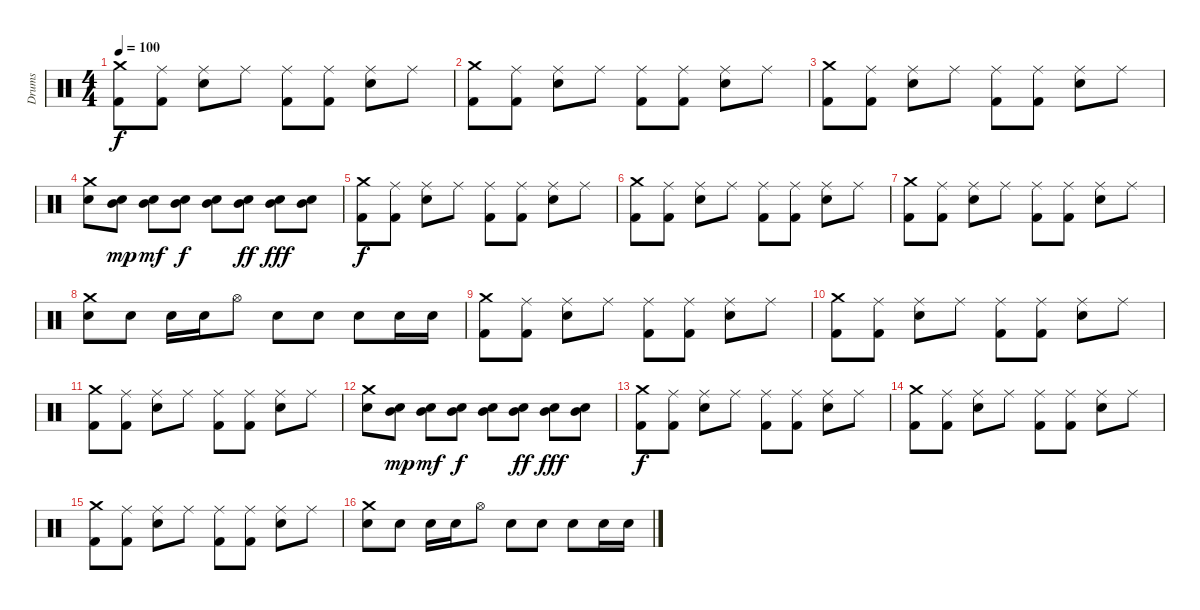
\track ("Drums" "Drums") {instrument percussion}
\staff {score}
\articulation defaults
\ts (4 4)
\tempo 100
\clef neutral
\ks c
("Crash medium (hit)" "Kick (hit) 2").8{dy f} ("Ride (middle)" "Kick (hit) 2").8 ("Ride (middle)" "Electric Snare (hit)").8 "Ride (middle)".8 ("Ride (middle)" "Kick (hit) 2").8 ("Ride (middle)" "Kick (hit) 2").8 ("Ride (middle)" "Electric Snare (hit)").8 "Ride (middle)".8 |
("Crash medium (hit)" "Kick (hit) 2").8 ("Ride (middle)" "Kick (hit) 2").8 ("Ride (middle)" "Electric Snare (hit)").8 "Ride (middle)".8 ("Ride (middle)" "Kick (hit) 2").8 ("Ride (middle)" "Kick (hit) 2").8 ("Ride (middle)" "Electric Snare (hit)").8 "Ride (middle)".8 |
("Crash medium (hit)" "Kick (hit) 2").8 ("Ride (middle)" "Kick (hit) 2").8 ("Ride (middle)" "Electric Snare (hit)").8 "Ride (middle)".8 ("Ride (middle)" "Kick (hit) 2").8 ("Ride (middle)" "Kick (hit) 2").8 ("Ride (middle)" "Electric Snare (hit)").8 "Ride (middle)".8 |
("Crash medium (hit)" "Electric Snare (hit)").8 ("Electric Snare (hit)" "Mid Tom (hit)").8{dy mp} ("Electric Snare (hit)" "Mid Tom (hit)").8{dy mf} ("Electric Snare (hit)" "Mid Tom (hit)").8{dy f} ("Electric Snare (hit)" "Mid Tom (hit)").8 ("Electric Snare (hit)" "Mid Tom (hit)").8{dy ff} ("Electric Snare (hit)" "Mid Tom (hit)").8{dy fff} ("Electric Snare (hit)" "Mid Tom (hit)").8 |
("Crash medium (hit)" "Kick (hit) 2").8{dy f} ("Ride (middle)" "Kick (hit) 2").8 ("Ride (middle)" "Electric Snare (hit)").8 "Ride (middle)".8 ("Ride (middle)" "Kick (hit) 2").8 ("Ride (middle)" "Kick (hit) 2").8 ("Ride (middle)" "Electric Snare (hit)").8 "Ride (middle)".8 |
("Crash medium (hit)" "Kick (hit) 2").8 ("Ride (middle)" "Kick (hit) 2").8 ("Ride (middle)" "Electric Snare (hit)").8 "Ride (middle)".8 ("Ride (middle)" "Kick (hit) 2").8 ("Ride (middle)" "Kick (hit) 2").8 ("Ride (middle)" "Electric Snare (hit)").8 "Ride (middle)".8 |
("Crash medium (hit)" "Kick (hit) 2").8 ("Ride (middle)" "Kick (hit) 2").8 ("Ride (middle)" "Electric Snare (hit)").8 "Ride (middle)".8 ("Ride (middle)" "Kick (hit) 2").8 ("Ride (middle)" "Kick (hit) 2").8 ("Ride (middle)" "Electric Snare (hit)").8 "Ride (middle)".8 |
("Crash medium (hit)" "Electric Snare (hit)").8 "Electric Snare (hit)".8 "Electric Snare (hit)".16 "Electric Snare (hit)".16 "Hi-Hat (open)".8 "Electric Snare (hit)".8 "Electric Snare (hit)".8 "Electric Snare (hit)".8 "Electric Snare (hit)".16 "Electric Snare (hit)".16 |
("Crash medium (hit)" "Kick (hit) 2").8 ("Ride (middle)" "Kick (hit) 2").8 ("Ride (middle)" "Electric Snare (hit)").8 "Ride (middle)".8 ("Ride (middle)" "Kick (hit) 2").8 ("Ride (middle)" "Kick (hit) 2").8 ("Ride (middle)" "Electric Snare (hit)").8 "Ride (middle)".8 |
("Crash medium (hit)" "Kick (hit) 2").8 ("Ride (middle)" "Kick (hit) 2").8 ("Ride (middle)" "Electric Snare (hit)").8 "Ride (middle)".8 ("Ride (middle)" "Kick (hit) 2").8 ("Ride (middle)" "Kick (hit) 2").8 ("Ride (middle)" "Electric Snare (hit)").8 "Ride (middle)".8 |
("Crash medium (hit)" "Kick (hit) 2").8 ("Ride (middle)" "Kick (hit) 2").8 ("Ride (middle)" "Electric Snare (hit)").8 "Ride (middle)".8 ("Ride (middle)" "Kick (hit) 2").8 ("Ride (middle)" "Kick (hit) 2").8 ("Ride (middle)" "Electric Snare (hit)").8 "Ride (middle)".8 |
("Crash medium (hit)" "Electric Snare (hit)").8 ("Electric Snare (hit)" "Mid Tom (hit)").8{dy mp} ("Electric Snare (hit)" "Mid Tom (hit)").8{dy mf} ("Electric Snare (hit)" "Mid Tom (hit)").8{dy f} ("Electric Snare (hit)" "Mid Tom (hit)").8 ("Electric Snare (hit)" "Mid Tom (hit)").8{dy ff} ("Electric Snare (hit)" "Mid Tom (hit)").8{dy fff} ("Electric Snare (hit)" "Mid Tom (hit)").8 |
("Crash medium (hit)" "Kick (hit) 2").8{dy f} ("Ride (middle)" "Kick (hit) 2").8 ("Ride (middle)" "Electric Snare (hit)").8 "Ride (middle)".8 ("Ride (middle)" "Kick (hit) 2").8 ("Ride (middle)" "Kick (hit) 2").8 ("Ride (middle)" "Electric Snare (hit)").8 "Ride (middle)".8 |
("Crash medium (hit)" "Kick (hit) 2").8 ("Ride (middle)" "Kick (hit) 2").8 ("Ride (middle)" "Electric Snare (hit)").8 "Ride (middle)".8 ("Ride (middle)" "Kick (hit) 2").8 ("Ride (middle)" "Kick (hit) 2").8 ("Ride (middle)" "Electric Snare (hit)").8 "Ride (middle)".8 |
("Crash medium (hit)" "Kick (hit) 2").8 ("Ride (middle)" "Kick (hit) 2").8 ("Ride (middle)" "Electric Snare (hit)").8 "Ride (middle)".8 ("Ride (middle)" "Kick (hit) 2").8 ("Ride (middle)" "Kick (hit) 2").8 ("Ride (middle)" "Electric Snare (hit)").8 "Ride (middle)".8 |
("Crash medium (hit)" "Electric Snare (hit)").8 "Electric Snare (hit)".8 "Electric Snare (hit)".16 "Electric Snare (hit)".16 "Hi-Hat (open)".8 "Electric Snare (hit)".8 "Electric Snare (hit)".8 "Electric Snare (hit)".8 "Electric Snare (hit)".16 "Electric Snare (hit)".16
